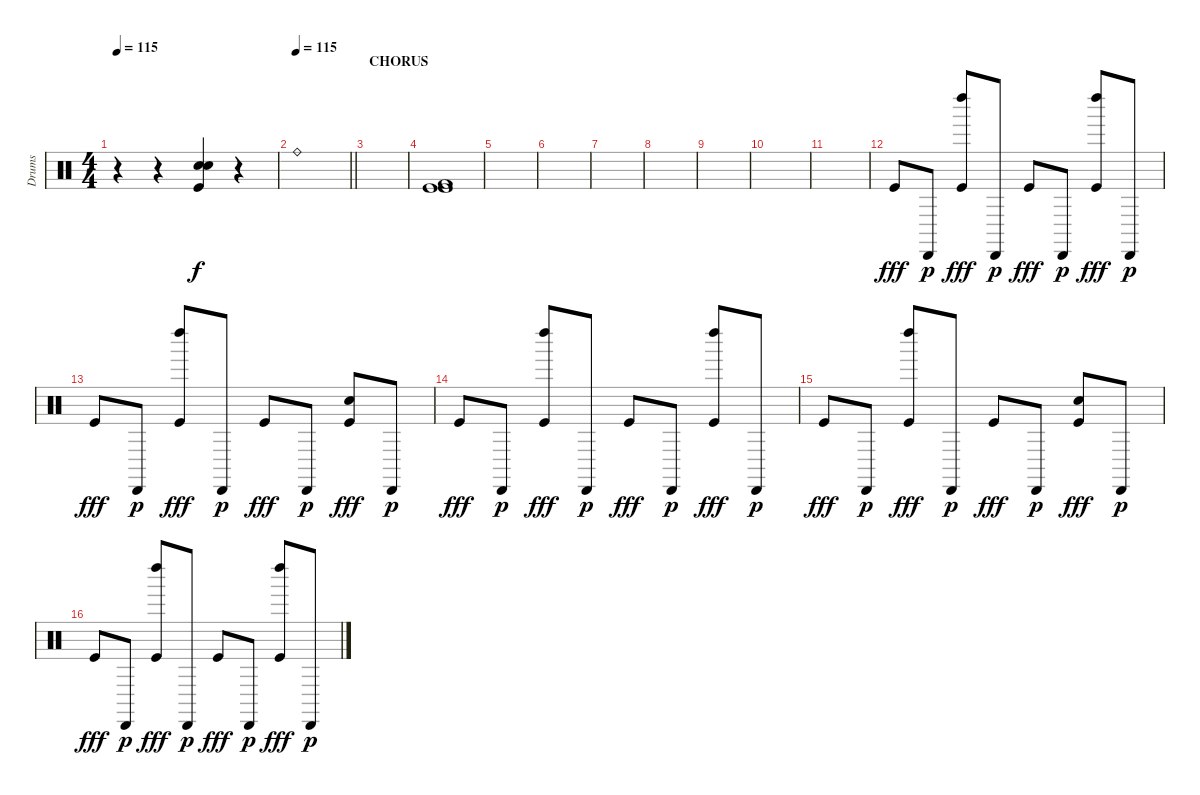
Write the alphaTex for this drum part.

\track ("Drums" "Drums") {instrument percussion}
\staff {score}
\articulation defaults
\ts (4 4)
\tempo 115
\clef neutral
\ks c
r.4{dy f} r.4 ("Hand Clap (hit)" "Electric Snare (hit)" "Kick (hit)").4 r.4 |
\tempo 115
\barLineRight lightlight "Ride (bell)".1
|
\section ("" "CHORUS")
|
("Kick (hit)" "Kick (hit) 2" "Kick (hit)").1 |
|
|
|
|
|
|
|
"Kick (hit)".8{dy fff} "Cabasa (hit)".8{dy p} ("Left Maraca (hit)" "Kick (hit)").8{dy fff} "Cabasa (hit)".8{dy p} "Kick (hit)".8{dy fff} "Cabasa (hit)".8{dy p} ("Left Maraca (hit)" "Kick (hit)").8{dy fff} "Cabasa (hit)".8{dy p} |
"Kick (hit)".8{dy fff} "Cabasa (hit)".8{dy p} ("Left Maraca (hit)" "Kick (hit)").8{dy fff} "Cabasa (hit)".8{dy p} "Kick (hit)".8{dy fff} "Cabasa (hit)".8{dy p} ("Hand Clap (hit)" "Kick (hit)").8{dy fff} "Cabasa (hit)".8{dy p} |
"Kick (hit)".8{dy fff} "Cabasa (hit)".8{dy p} ("Left Maraca (hit)" "Kick (hit)").8{dy fff} "Cabasa (hit)".8{dy p} "Kick (hit)".8{dy fff} "Cabasa (hit)".8{dy p} ("Left Maraca (hit)" "Kick (hit)").8{dy fff} "Cabasa (hit)".8{dy p} |
"Kick (hit)".8{dy fff} "Cabasa (hit)".8{dy p} ("Left Maraca (hit)" "Kick (hit)").8{dy fff} "Cabasa (hit)".8{dy p} "Kick (hit)".8{dy fff} "Cabasa (hit)".8{dy p} ("Hand Clap (hit)" "Kick (hit)").8{dy fff} "Cabasa (hit)".8{dy p} |
"Kick (hit)".8{dy fff} "Cabasa (hit)".8{dy p} ("Left Maraca (hit)" "Kick (hit)").8{dy fff} "Cabasa (hit)".8{dy p} "Kick (hit)".8{dy fff} "Cabasa (hit)".8{dy p} ("Left Maraca (hit)" "Kick (hit)").8{dy fff} "Cabasa (hit)".8{dy p}
